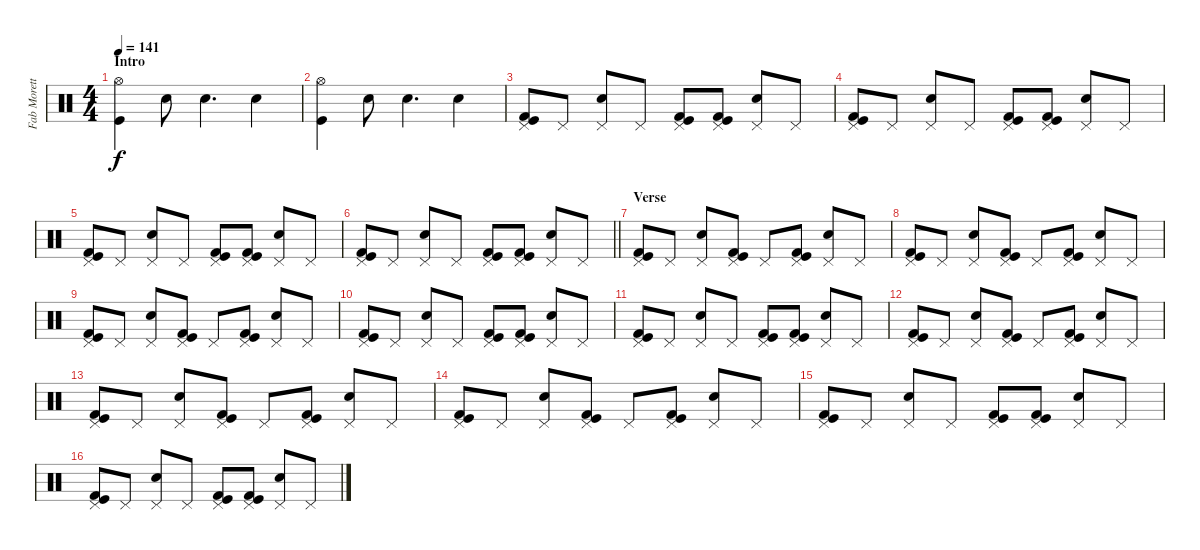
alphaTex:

\track ("Fab Moretti - Drums" "Fab Morett") {instrument percussion}
\staff {score}
\articulation defaults
\ts (4 4)
\section ("" "Intro")
\tempo 141
\clef neutral
\ks c
("Hi-Hat (open)" "Kick (hit)").4{dy f} "Snare (hit) 2".8 "Snare (hit) 2".4{d} "Snare (hit) 2".4 |
("Hi-Hat (open)" "Kick (hit)").4 "Snare (hit) 2".8 "Snare (hit) 2".4{d} "Snare (hit) 2".4 |
("Pedal Hi-Hat (hit)" "Kick (hit) 2" "Kick (hit)").8 "Pedal Hi-Hat (hit)".8 ("Pedal Hi-Hat (hit)" "Snare (hit) 2").8 "Pedal Hi-Hat (hit)".8 ("Pedal Hi-Hat (hit)" "Kick (hit) 2" "Kick (hit)").8 ("Pedal Hi-Hat (hit)" "Kick (hit) 2" "Kick (hit)").8 ("Pedal Hi-Hat (hit)" "Snare (hit) 2").8 "Pedal Hi-Hat (hit)".8 |
("Pedal Hi-Hat (hit)" "Kick (hit) 2" "Kick (hit)").8 "Pedal Hi-Hat (hit)".8 ("Pedal Hi-Hat (hit)" "Snare (hit) 2").8 "Pedal Hi-Hat (hit)".8 ("Pedal Hi-Hat (hit)" "Kick (hit) 2" "Kick (hit)").8 ("Pedal Hi-Hat (hit)" "Kick (hit) 2" "Kick (hit)").8 ("Pedal Hi-Hat (hit)" "Snare (hit) 2").8 "Pedal Hi-Hat (hit)".8 |
("Pedal Hi-Hat (hit)" "Kick (hit) 2" "Kick (hit)").8 "Pedal Hi-Hat (hit)".8 ("Pedal Hi-Hat (hit)" "Snare (hit) 2").8 "Pedal Hi-Hat (hit)".8 ("Pedal Hi-Hat (hit)" "Kick (hit) 2" "Kick (hit)").8 ("Pedal Hi-Hat (hit)" "Kick (hit) 2" "Kick (hit)").8 ("Pedal Hi-Hat (hit)" "Snare (hit) 2").8 "Pedal Hi-Hat (hit)".8 |
\barLineRight lightlight
("Pedal Hi-Hat (hit)" "Kick (hit) 2" "Kick (hit)").8 "Pedal Hi-Hat (hit)".8 ("Pedal Hi-Hat (hit)" "Snare (hit) 2").8 "Pedal Hi-Hat (hit)".8 ("Pedal Hi-Hat (hit)" "Kick (hit) 2" "Kick (hit)").8 ("Pedal Hi-Hat (hit)" "Kick (hit) 2" "Kick (hit)").8 ("Pedal Hi-Hat (hit)" "Snare (hit) 2").8 "Pedal Hi-Hat (hit)".8 |
\section ("" "Verse")
("Pedal Hi-Hat (hit)" "Kick (hit) 2" "Kick (hit)").8 "Pedal Hi-Hat (hit)".8 ("Pedal Hi-Hat (hit)" "Snare (hit) 2").8 ("Pedal Hi-Hat (hit)" "Kick (hit) 2" "Kick (hit)").8 "Pedal Hi-Hat (hit)".8 ("Pedal Hi-Hat (hit)" "Kick (hit) 2" "Kick (hit)").8 ("Pedal Hi-Hat (hit)" "Snare (hit) 2").8 "Pedal Hi-Hat (hit)".8 |
("Pedal Hi-Hat (hit)" "Kick (hit) 2" "Kick (hit)").8 "Pedal Hi-Hat (hit)".8 ("Pedal Hi-Hat (hit)" "Snare (hit) 2").8 ("Pedal Hi-Hat (hit)" "Kick (hit) 2" "Kick (hit)").8 "Pedal Hi-Hat (hit)".8 ("Pedal Hi-Hat (hit)" "Kick (hit) 2" "Kick (hit)").8 ("Pedal Hi-Hat (hit)" "Snare (hit) 2").8 "Pedal Hi-Hat (hit)".8 |
("Pedal Hi-Hat (hit)" "Kick (hit) 2" "Kick (hit)").8 "Pedal Hi-Hat (hit)".8 ("Pedal Hi-Hat (hit)" "Snare (hit) 2").8 ("Pedal Hi-Hat (hit)" "Kick (hit) 2" "Kick (hit)").8 "Pedal Hi-Hat (hit)".8 ("Pedal Hi-Hat (hit)" "Kick (hit) 2" "Kick (hit)").8 ("Pedal Hi-Hat (hit)" "Snare (hit) 2").8 "Pedal Hi-Hat (hit)".8 |
("Pedal Hi-Hat (hit)" "Kick (hit) 2" "Kick (hit)").8 "Pedal Hi-Hat (hit)".8 ("Pedal Hi-Hat (hit)" "Snare (hit) 2").8 "Pedal Hi-Hat (hit)".8 ("Pedal Hi-Hat (hit)" "Kick (hit) 2" "Kick (hit)").8 ("Pedal Hi-Hat (hit)" "Kick (hit) 2" "Kick (hit)").8 ("Pedal Hi-Hat (hit)" "Snare (hit) 2").8 "Pedal Hi-Hat (hit)".8 |
("Pedal Hi-Hat (hit)" "Kick (hit) 2" "Kick (hit)").8 "Pedal Hi-Hat (hit)".8 ("Pedal Hi-Hat (hit)" "Snare (hit) 2").8 "Pedal Hi-Hat (hit)".8 ("Pedal Hi-Hat (hit)" "Kick (hit) 2" "Kick (hit)").8 ("Pedal Hi-Hat (hit)" "Kick (hit) 2" "Kick (hit)").8 ("Pedal Hi-Hat (hit)" "Snare (hit) 2").8 "Pedal Hi-Hat (hit)".8 |
("Pedal Hi-Hat (hit)" "Kick (hit) 2" "Kick (hit)").8 "Pedal Hi-Hat (hit)".8 ("Pedal Hi-Hat (hit)" "Snare (hit) 2").8 ("Pedal Hi-Hat (hit)" "Kick (hit) 2" "Kick (hit)").8 "Pedal Hi-Hat (hit)".8 ("Pedal Hi-Hat (hit)" "Kick (hit) 2" "Kick (hit)").8 ("Pedal Hi-Hat (hit)" "Snare (hit) 2").8 "Pedal Hi-Hat (hit)".8 |
("Pedal Hi-Hat (hit)" "Kick (hit) 2" "Kick (hit)").8 "Pedal Hi-Hat (hit)".8 ("Pedal Hi-Hat (hit)" "Snare (hit) 2").8 ("Pedal Hi-Hat (hit)" "Kick (hit) 2" "Kick (hit)").8 "Pedal Hi-Hat (hit)".8 ("Pedal Hi-Hat (hit)" "Kick (hit) 2" "Kick (hit)").8 ("Pedal Hi-Hat (hit)" "Snare (hit) 2").8 "Pedal Hi-Hat (hit)".8 |
("Pedal Hi-Hat (hit)" "Kick (hit) 2" "Kick (hit)").8 "Pedal Hi-Hat (hit)".8 ("Pedal Hi-Hat (hit)" "Snare (hit) 2").8 ("Pedal Hi-Hat (hit)" "Kick (hit) 2" "Kick (hit)").8 "Pedal Hi-Hat (hit)".8 ("Pedal Hi-Hat (hit)" "Kick (hit) 2" "Kick (hit)").8 ("Pedal Hi-Hat (hit)" "Snare (hit) 2").8 "Pedal Hi-Hat (hit)".8 |
("Pedal Hi-Hat (hit)" "Kick (hit) 2" "Kick (hit)").8 "Pedal Hi-Hat (hit)".8 ("Pedal Hi-Hat (hit)" "Snare (hit) 2").8 "Pedal Hi-Hat (hit)".8 ("Pedal Hi-Hat (hit)" "Kick (hit) 2" "Kick (hit)").8 ("Pedal Hi-Hat (hit)" "Kick (hit) 2" "Kick (hit)").8 ("Pedal Hi-Hat (hit)" "Snare (hit) 2").8 "Pedal Hi-Hat (hit)".8 |
("Pedal Hi-Hat (hit)" "Kick (hit) 2" "Kick (hit)").8 "Pedal Hi-Hat (hit)".8 ("Pedal Hi-Hat (hit)" "Snare (hit) 2").8 "Pedal Hi-Hat (hit)".8 ("Pedal Hi-Hat (hit)" "Kick (hit) 2" "Kick (hit)").8 ("Pedal Hi-Hat (hit)" "Kick (hit) 2" "Kick (hit)").8 ("Pedal Hi-Hat (hit)" "Snare (hit) 2").8 "Pedal Hi-Hat (hit)".8
